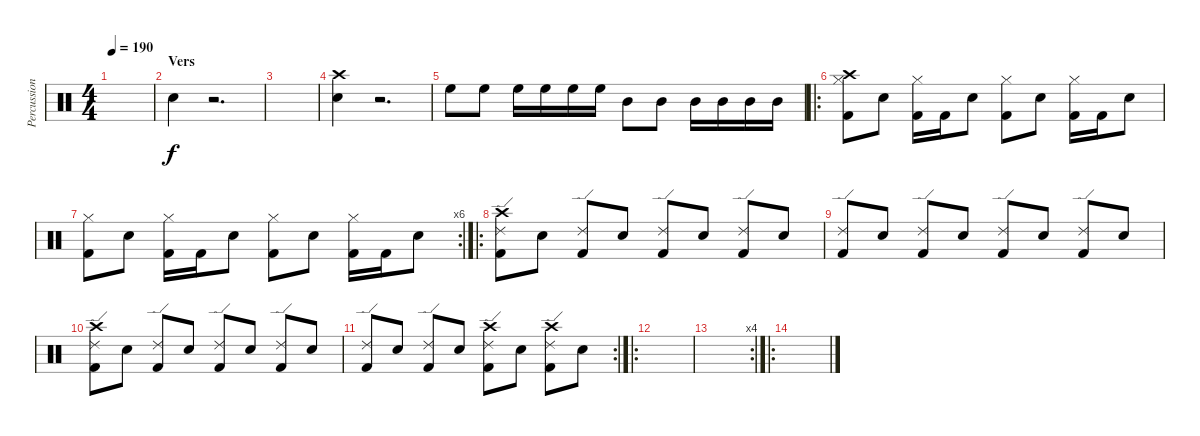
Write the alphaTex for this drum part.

\track ("Percussion" "Percussion") {instrument percussion}
\staff {score}
\articulation defaults
\ts (4 4)
\tempo 190
\clef neutral
\ks c
|
\section ("" "Vers")
"Snare (hit) 2".4 r.2{d} |
|
("Crash high (hit)" "Snare (hit) 2").4 r.2{d} |
"High Floor Tom (hit)".8 "High Floor Tom (hit)".8 "High Floor Tom (hit)".16 "High Floor Tom (hit)".16 "High Floor Tom (hit)".16 "High Floor Tom (hit)".16 "Mid Tom (hit)".8 "Mid Tom (hit)".8 "Mid Tom (hit)".16 "Mid Tom (hit)".16 "Mid Tom (hit)".16 "Mid Tom (hit)".16 |
\ro
("Crash high (hit)" "Hi-Hat (closed)" "Kick (hit) 2").8 "Snare (hit) 2".8 ("Hi-Hat (closed)" "Kick (hit) 2").16 "Kick (hit) 2".16 "Snare (hit) 2".8 ("Hi-Hat (closed)" "Kick (hit) 2").8 "Snare (hit) 2".8 ("Hi-Hat (closed)" "Kick (hit) 2").16 "Kick (hit) 2".16 "Snare (hit) 2".8 |
\rc 6
("Hi-Hat (closed)" "Kick (hit) 2").8 "Snare (hit) 2".8 ("Hi-Hat (closed)" "Kick (hit) 2").16 "Kick (hit) 2".16 "Snare (hit) 2".8 ("Hi-Hat (closed)" "Kick (hit) 2").8 "Snare (hit) 2".8 ("Hi-Hat (closed)" "Kick (hit) 2").16 "Kick (hit) 2".16 "Snare (hit) 2".8 |
\ro
("Crash high (hit)" "Ride (edge) 2" "Kick (hit) 2").8 "Snare (hit) 2".8 ("Ride (edge) 2" "Kick (hit) 2").8 "Snare (hit) 2".8 ("Ride (edge) 2" "Kick (hit) 2").8 "Snare (hit) 2".8 ("Ride (edge) 2" "Kick (hit) 2").8 "Snare (hit) 2".8 |
("Ride (edge) 2" "Kick (hit) 2").8 "Snare (hit) 2".8 ("Ride (edge) 2" "Kick (hit) 2").8 "Snare (hit) 2".8 ("Ride (edge) 2" "Kick (hit) 2").8 "Snare (hit) 2".8 ("Ride (edge) 2" "Kick (hit) 2").8 "Snare (hit) 2".8 |
("Crash high (hit)" "Ride (edge) 2" "Kick (hit) 2").8 "Snare (hit) 2".8 ("Ride (edge) 2" "Kick (hit) 2").8 "Snare (hit) 2".8 ("Ride (edge) 2" "Kick (hit) 2").8 "Snare (hit) 2".8 ("Ride (edge) 2" "Kick (hit) 2").8 "Snare (hit) 2".8 |
\rc 2
("Ride (edge) 2" "Kick (hit) 2").8 "Snare (hit) 2".8 ("Ride (edge) 2" "Kick (hit) 2").8 "Snare (hit) 2".8 ("Crash high (hit)" "Ride (edge) 2" "Kick (hit) 2").8 "Snare (hit) 2".8 ("Crash high (hit)" "Ride (edge) 2" "Kick (hit) 2").8 "Snare (hit) 2".8 |
\ro
|
\rc 4
|
\ro
